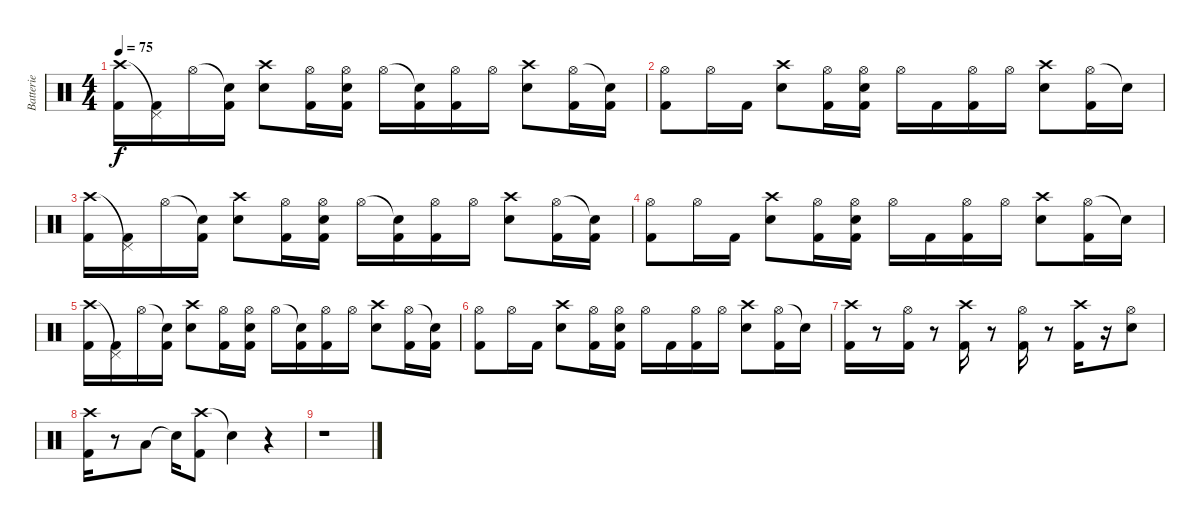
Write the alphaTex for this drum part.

\track ("Batterie" "Batterie") {instrument percussion}
\staff {score}
\articulation defaults
\ts (4 4)
\tempo 75
\clef neutral
\ks c
("Crash high (hit)" "Kick (hit) 2").16{dy f} ("Pedal Hi-Hat (hit)"{t} "Kick (hit) 2").16 "Hi-Hat (open)".16 ("Snare (hit)"{t} "Kick (hit) 2").16 ("Crash high (hit)" "Electric Snare (hit)").8 ("Hi-Hat (open)" "Kick (hit) 2").16 ("Hi-Hat (open)" "Electric Snare (hit)" "Kick (hit) 2").16 "Hi-Hat (open)".16 ("Snare (hit)"{t} "Kick (hit) 2").16 ("Hi-Hat (open)" "Kick (hit) 2").16 "Hi-Hat (open)".16 ("Crash high (hit)" "Electric Snare (hit)").8 ("Hi-Hat (open)" "Kick (hit) 2").16 ("Snare (hit)"{t} "Kick (hit) 2").16 |
("Hi-Hat (open)" "Kick (hit) 2").8 "Hi-Hat (open)".16 "Kick (hit) 2".16 ("Crash high (hit)" "Electric Snare (hit)").8 ("Hi-Hat (open)" "Kick (hit) 2").16 ("Hi-Hat (open)" "Electric Snare (hit)" "Kick (hit) 2").16 "Hi-Hat (open)".16 "Kick (hit) 2".16 ("Hi-Hat (open)" "Kick (hit) 2").16 "Hi-Hat (open)".16 ("Crash high (hit)" "Electric Snare (hit)").8 ("Hi-Hat (open)" "Kick (hit) 2").16 "Snare (hit)"{t}.16 |
("Crash high (hit)" "Kick (hit) 2").16 ("Pedal Hi-Hat (hit)"{t} "Kick (hit) 2").16 "Hi-Hat (open)".16 ("Snare (hit)"{t} "Kick (hit) 2").16 ("Crash high (hit)" "Electric Snare (hit)").8 ("Hi-Hat (open)" "Kick (hit) 2").16 ("Hi-Hat (open)" "Electric Snare (hit)" "Kick (hit) 2").16 "Hi-Hat (open)".16 ("Snare (hit)"{t} "Kick (hit) 2").16 ("Hi-Hat (open)" "Kick (hit) 2").16 "Hi-Hat (open)".16 ("Crash high (hit)" "Electric Snare (hit)").8 ("Hi-Hat (open)" "Kick (hit) 2").16 ("Snare (hit)"{t} "Kick (hit) 2").16 |
("Hi-Hat (open)" "Kick (hit) 2").8 "Hi-Hat (open)".16 "Kick (hit) 2".16 ("Crash high (hit)" "Electric Snare (hit)").8 ("Hi-Hat (open)" "Kick (hit) 2").16 ("Hi-Hat (open)" "Electric Snare (hit)" "Kick (hit) 2").16 "Hi-Hat (open)".16 "Kick (hit) 2".16 ("Hi-Hat (open)" "Kick (hit) 2").16 "Hi-Hat (open)".16 ("Crash high (hit)" "Electric Snare (hit)").8 ("Hi-Hat (open)" "Kick (hit) 2").16 "Snare (hit)"{t}.16 |
("Crash high (hit)" "Kick (hit) 2").16 ("Pedal Hi-Hat (hit)"{t} "Kick (hit) 2").16 "Hi-Hat (open)".16 ("Snare (hit)"{t} "Kick (hit) 2").16 ("Crash high (hit)" "Electric Snare (hit)").8 ("Hi-Hat (open)" "Kick (hit) 2").16 ("Hi-Hat (open)" "Electric Snare (hit)" "Kick (hit) 2").16 "Hi-Hat (open)".16 ("Snare (hit)"{t} "Kick (hit) 2").16 ("Hi-Hat (open)" "Kick (hit) 2").16 "Hi-Hat (open)".16 ("Crash high (hit)" "Electric Snare (hit)").8 ("Hi-Hat (open)" "Kick (hit) 2").16 ("Snare (hit)"{t} "Kick (hit) 2").16 |
("Hi-Hat (open)" "Kick (hit) 2").8 "Hi-Hat (open)".16 "Kick (hit) 2".16 ("Crash high (hit)" "Electric Snare (hit)").8 ("Hi-Hat (open)" "Kick (hit) 2").16 ("Hi-Hat (open)" "Electric Snare (hit)" "Kick (hit) 2").16 "Hi-Hat (open)".16 "Kick (hit) 2".16 ("Hi-Hat (open)" "Kick (hit) 2").16 "Hi-Hat (open)".16 ("Crash high (hit)" "Electric Snare (hit)").8 ("Hi-Hat (open)" "Kick (hit) 2").16 "Snare (hit)"{t}.16 |
("Crash high (hit)" "Kick (hit) 2").16 r.8 ("Hi-Hat (open)" "Kick (hit) 2").16 r.8 ("Crash high (hit)" "Kick (hit) 2").16 r.8 ("Hi-Hat (open)" "Kick (hit) 2").16 r.8 ("Crash high (hit)" "Kick (hit) 2").16 r.16 ("Hi-Hat (open)" "Electric Snare (hit)").8 |
("Crash high (hit)" "Kick (hit) 2").16 r.8 "Low Tom (hit)".8 "Snare (hit)"{t}.16 ("Crash high (hit)" "Kick (hit) 2").8 "Snare (hit)"{t}.4 r.4 |
r.1
